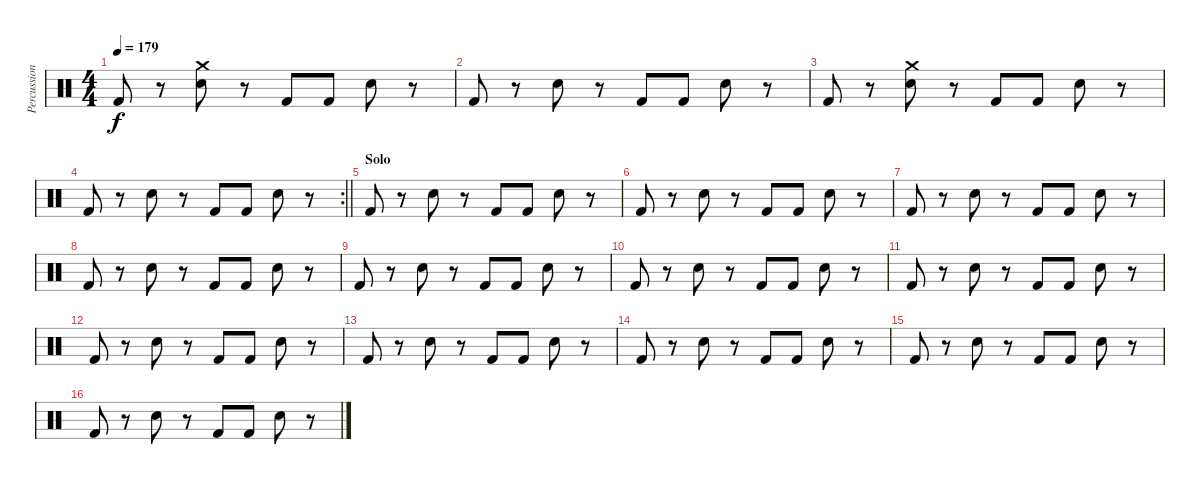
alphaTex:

\track ("Percussion" "Percussion") {instrument percussion}
\staff {score}
\articulation defaults
\ts (4 4)
\tempo 179
\clef neutral
\ks c "Kick (hit) 2".8{dy f}
r.8 ("Crash medium (hit)" "Snare (hit) 2").8 r.8 "Kick (hit) 2".8 "Kick (hit) 2".8 "Snare (hit) 2".8 r.8 |
"Kick (hit) 2".8 r.8 "Snare (hit) 2".8 r.8 "Kick (hit) 2".8 "Kick (hit) 2".8 "Snare (hit) 2".8 r.8 |
"Kick (hit) 2".8 r.8 ("Crash medium (hit)" "Snare (hit) 2").8 r.8 "Kick (hit) 2".8 "Kick (hit) 2".8 "Snare (hit) 2".8 r.8 |
\rc 2
\barLineRight lightlight "Kick (hit) 2".8
r.8 "Snare (hit) 2".8 r.8 "Kick (hit) 2".8 "Kick (hit) 2".8 "Snare (hit) 2".8 r.8 |
\section ("" "Solo")
"Kick (hit) 2".8 r.8 "Snare (hit) 2".8 r.8 "Kick (hit) 2".8 "Kick (hit) 2".8 "Snare (hit) 2".8 r.8 |
"Kick (hit) 2".8 r.8 "Snare (hit) 2".8 r.8 "Kick (hit) 2".8 "Kick (hit) 2".8 "Snare (hit) 2".8 r.8 |
"Kick (hit) 2".8 r.8 "Snare (hit) 2".8 r.8 "Kick (hit) 2".8 "Kick (hit) 2".8 "Snare (hit) 2".8 r.8 |
"Kick (hit) 2".8 r.8 "Snare (hit) 2".8 r.8 "Kick (hit) 2".8 "Kick (hit) 2".8 "Snare (hit) 2".8 r.8 |
"Kick (hit) 2".8 r.8 "Snare (hit) 2".8 r.8 "Kick (hit) 2".8 "Kick (hit) 2".8 "Snare (hit) 2".8 r.8 |
"Kick (hit) 2".8 r.8 "Snare (hit) 2".8 r.8 "Kick (hit) 2".8 "Kick (hit) 2".8 "Snare (hit) 2".8 r.8 |
"Kick (hit) 2".8 r.8 "Snare (hit) 2".8 r.8 "Kick (hit) 2".8 "Kick (hit) 2".8 "Snare (hit) 2".8 r.8 |
"Kick (hit) 2".8 r.8 "Snare (hit) 2".8 r.8 "Kick (hit) 2".8 "Kick (hit) 2".8 "Snare (hit) 2".8 r.8 |
"Kick (hit) 2".8 r.8 "Snare (hit) 2".8 r.8 "Kick (hit) 2".8 "Kick (hit) 2".8 "Snare (hit) 2".8 r.8 |
"Kick (hit) 2".8 r.8 "Snare (hit) 2".8 r.8 "Kick (hit) 2".8 "Kick (hit) 2".8 "Snare (hit) 2".8 r.8 |
"Kick (hit) 2".8 r.8 "Snare (hit) 2".8 r.8 "Kick (hit) 2".8 "Kick (hit) 2".8 "Snare (hit) 2".8 r.8 |
"Kick (hit) 2".8 r.8 "Snare (hit) 2".8 r.8 "Kick (hit) 2".8 "Kick (hit) 2".8 "Snare (hit) 2".8 r.8
